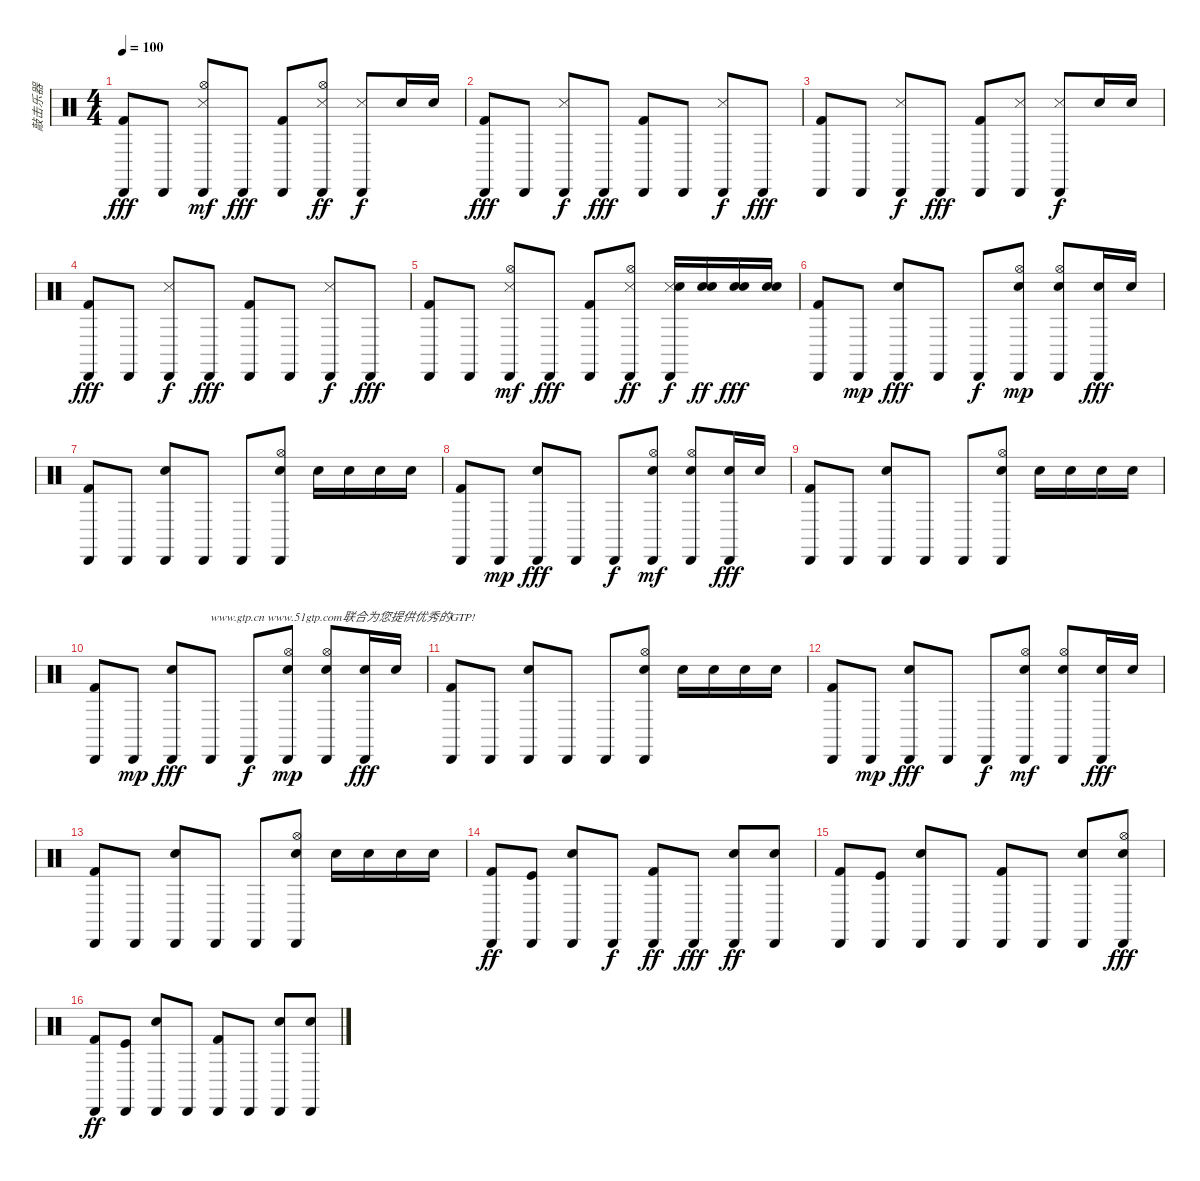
\track ("敲击乐器" "敲击乐器") {instrument percussion}
\staff {score}
\articulation defaults
\ts (4 4)
\tempo 100
\clef neutral
\ks c
("Cabasa (hit)" "Kick (hit) 2").8{dy fff} "Cabasa (hit)".8 ("Cabasa (hit)" "Snare (side stick) 3" "Hi-Hat (open)").8{dy mf} "Cabasa (hit)".8{dy fff} ("Cabasa (hit)" "Kick (hit) 2").8 ("Cabasa (hit)" "Snare (side stick) 3" "Hi-Hat (open)").8{dy ff} ("Cabasa (hit)" "Snare (side stick) 3").8{dy f} "Electric Snare (hit)".16 "Snare (hit) 2".16 |
("Cabasa (hit)" "Kick (hit) 2").8{dy fff} "Cabasa (hit)".8 ("Cabasa (hit)" "Snare (side stick) 3").8{dy f} "Cabasa (hit)".8{dy fff} ("Cabasa (hit)" "Kick (hit) 2").8 "Cabasa (hit)".8 ("Cabasa (hit)" "Snare (side stick) 3").8{dy f} "Cabasa (hit)".8{dy fff} |
("Cabasa (hit)" "Kick (hit) 2").8 "Cabasa (hit)".8 ("Cabasa (hit)" "Snare (side stick) 3").8{dy f} "Cabasa (hit)".8{dy fff} ("Cabasa (hit)" "Kick (hit) 2").8 ("Cabasa (hit)" "Snare (side stick) 3").8 ("Cabasa (hit)" "Snare (side stick) 3").8{dy f} "Electric Snare (hit)".16 "Snare (hit) 2".16 |
("Cabasa (hit)" "Kick (hit) 2").8{dy fff} "Cabasa (hit)".8 ("Cabasa (hit)" "Snare (side stick) 3").8{dy f} "Cabasa (hit)".8{dy fff} ("Cabasa (hit)" "Kick (hit) 2").8 "Cabasa (hit)".8 ("Cabasa (hit)" "Snare (side stick) 3").8{dy f} "Cabasa (hit)".8{dy fff} |
("Cabasa (hit)" "Kick (hit) 2").8 "Cabasa (hit)".8 ("Cabasa (hit)" "Snare (side stick) 3" "Hi-Hat (open)").8{dy mf} "Cabasa (hit)".8{dy fff} ("Cabasa (hit)" "Kick (hit) 2").8 ("Cabasa (hit)" "Snare (side stick) 3" "Hi-Hat (open)").8{dy ff} ("Cabasa (hit)" "Snare (side stick) 3" "Snare (hit) 2").16{dy f} ("Electric Snare (hit)" "Snare (hit) 2").16{dy ff} ("Snare (hit) 2" "Snare (hit) 2").16{dy fff} ("Snare (hit) 2" "Electric Snare (hit)").16 |
("Kick (hit) 2" "Cabasa (hit)").8 "Cabasa (hit)".8{dy mp} ("Cabasa (hit)" "Snare (hit) 2").8{dy fff} "Cabasa (hit)".8 "Cabasa (hit)".8{dy f} ("Cabasa (hit)" "Snare (hit) 2" "Hi-Hat (open)").8{dy mp} ("Cabasa (hit)" "Snare (hit) 2" "Hi-Hat (open)").8 ("Cabasa (hit)" "Snare (hit) 2").16{dy fff} "Snare (hit) 2".16 |
("Kick (hit) 2" "Cabasa (hit)").8 "Cabasa (hit)".8 ("Cabasa (hit)" "Snare (hit) 2").8 "Cabasa (hit)".8 "Cabasa (hit)".8 ("Cabasa (hit)" "Snare (hit) 2" "Hi-Hat (open)").8 "Snare (hit) 2".16 "Snare (hit) 2".16 "Snare (hit) 2".16 "Snare (hit) 2".16 |
("Kick (hit) 2" "Cabasa (hit)").8 "Cabasa (hit)".8{dy mp} ("Cabasa (hit)" "Snare (hit) 2").8{dy fff} "Cabasa (hit)".8 "Cabasa (hit)".8{dy f} ("Cabasa (hit)" "Snare (hit) 2" "Hi-Hat (open)").8{dy mf} ("Cabasa (hit)" "Snare (hit) 2" "Hi-Hat (open)").8 ("Cabasa (hit)" "Snare (hit) 2").16{dy fff} "Snare (hit) 2".16 |
("Kick (hit) 2" "Cabasa (hit)").8 "Cabasa (hit)".8 ("Cabasa (hit)" "Snare (hit) 2").8 "Cabasa (hit)".8 "Cabasa (hit)".8 ("Cabasa (hit)" "Snare (hit) 2" "Hi-Hat (open)").8 "Snare (hit) 2".16 "Snare (hit) 2".16 "Snare (hit) 2".16 "Snare (hit) 2".16 |
("Kick (hit) 2" "Cabasa (hit)").8 "Cabasa (hit)".8{dy mp} ("Cabasa (hit)" "Snare (hit) 2").8{dy fff} "Cabasa (hit)".8{txt "www.gtp.cn www.51gtp.com联合为您提供优秀的GTP!"} "Cabasa (hit)".8{dy f} ("Cabasa (hit)" "Snare (hit) 2" "Hi-Hat (open)").8{dy mp} ("Cabasa (hit)" "Snare (hit) 2" "Hi-Hat (open)").8 ("Cabasa (hit)" "Snare (hit) 2").16{dy fff} "Snare (hit) 2".16 |
("Kick (hit) 2" "Cabasa (hit)").8 "Cabasa (hit)".8 ("Cabasa (hit)" "Snare (hit) 2").8 "Cabasa (hit)".8 "Cabasa (hit)".8 ("Cabasa (hit)" "Snare (hit) 2" "Hi-Hat (open)").8 "Snare (hit) 2".16 "Snare (hit) 2".16 "Snare (hit) 2".16 "Snare (hit) 2".16 |
("Kick (hit) 2" "Cabasa (hit)").8 "Cabasa (hit)".8{dy mp} ("Cabasa (hit)" "Snare (hit) 2").8{dy fff} "Cabasa (hit)".8 "Cabasa (hit)".8{dy f} ("Cabasa (hit)" "Snare (hit) 2" "Hi-Hat (open)").8{dy mf} ("Cabasa (hit)" "Snare (hit) 2" "Hi-Hat (open)").8 ("Cabasa (hit)" "Snare (hit) 2").16{dy fff} "Snare (hit) 2".16 |
("Kick (hit) 2" "Cabasa (hit)").8 "Cabasa (hit)".8 ("Cabasa (hit)" "Snare (hit) 2").8 "Cabasa (hit)".8 "Cabasa (hit)".8 ("Cabasa (hit)" "Snare (hit) 2" "Hi-Hat (open)").8 "Snare (hit) 2".16 "Snare (hit) 2".16 "Snare (hit) 2".16 "Snare (hit) 2".16 |
("Cabasa (hit)" "Kick (hit) 2").8{dy ff} ("Cabasa (hit)" "Kick (hit)").8 ("Cabasa (hit)" "Snare (hit) 2").8 "Cabasa (hit)".8{dy f} ("Cabasa (hit)" "Kick (hit) 2").8{dy ff} "Cabasa (hit)".8{dy fff} ("Cabasa (hit)" "Snare (hit) 2").8{dy ff} ("Cabasa (hit)" "Electric Snare (hit)").8 |
("Cabasa (hit)" "Kick (hit) 2").8 ("Cabasa (hit)" "Kick (hit)").8 ("Cabasa (hit)" "Snare (hit) 2").8 "Cabasa (hit)".8 ("Cabasa (hit)" "Kick (hit) 2").8 "Cabasa (hit)".8 ("Cabasa (hit)" "Snare (hit) 2").8 ("Cabasa (hit)" "Electric Snare (hit)" "Hi-Hat (open)").8{dy fff} |
("Cabasa (hit)" "Kick (hit) 2").8{dy ff} ("Cabasa (hit)" "Kick (hit)").8 ("Cabasa (hit)" "Snare (hit) 2").8 "Cabasa (hit)".8 ("Cabasa (hit)" "Kick (hit) 2").8 "Cabasa (hit)".8 ("Cabasa (hit)" "Snare (hit) 2").8 ("Cabasa (hit)" "Electric Snare (hit)").8
